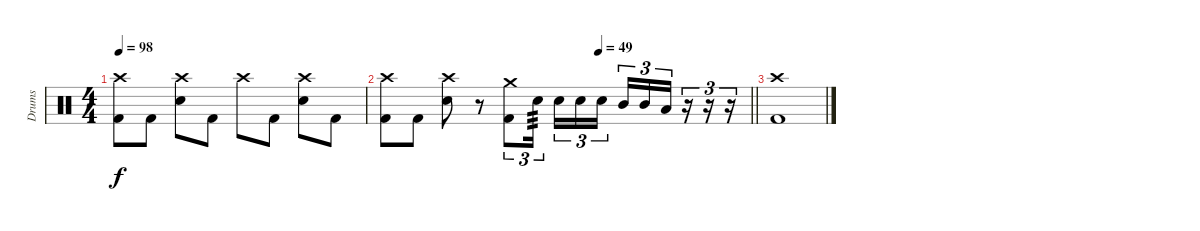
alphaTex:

\track ("Drums" "Drums") {instrument percussion}
\staff {score}
\articulation defaults
\ts (4 4)
\tempo 98
\clef neutral
\ks c
("Crash high (hit)" "Kick (hit) 2").8{dy f} "Kick (hit) 2".8 ("Crash high (hit)" "Snare (hit) 2").8 "Kick (hit) 2".8 "Crash high (hit)".8 "Kick (hit) 2".8 ("Crash high (hit)" "Snare (hit) 2").8 "Kick (hit) 2".8 |
\tempo (49 0.5833333333333334)
\barLineRight lightlight
("Crash high (hit)" "Kick (hit) 2").8 "Kick (hit) 2".8 ("Crash high (hit)" "Snare (hit) 2").8 r.8 ("Crash medium (hit)" "Kick (hit) 2").8{tu (3 2)} "Snare (hit) 2".16{tu (3 2) tp 3 beam splitsecondary} "Snare (hit) 2".16{tu (3 2)} "Snare (hit) 2".16{tu (3 2)} "Snare (hit) 2".16{tu (3 2)} "Mid Tom (hit)".16{tu (3 2)} "Mid Tom (hit)".16{tu (3 2)} "Low Tom (hit)".16{tu (3 2)} r.16{tu (3 2)} r.16{tu (3 2)} r.16{tu (3 2)} |
("Crash high (hit)" "Kick (hit) 2").1
